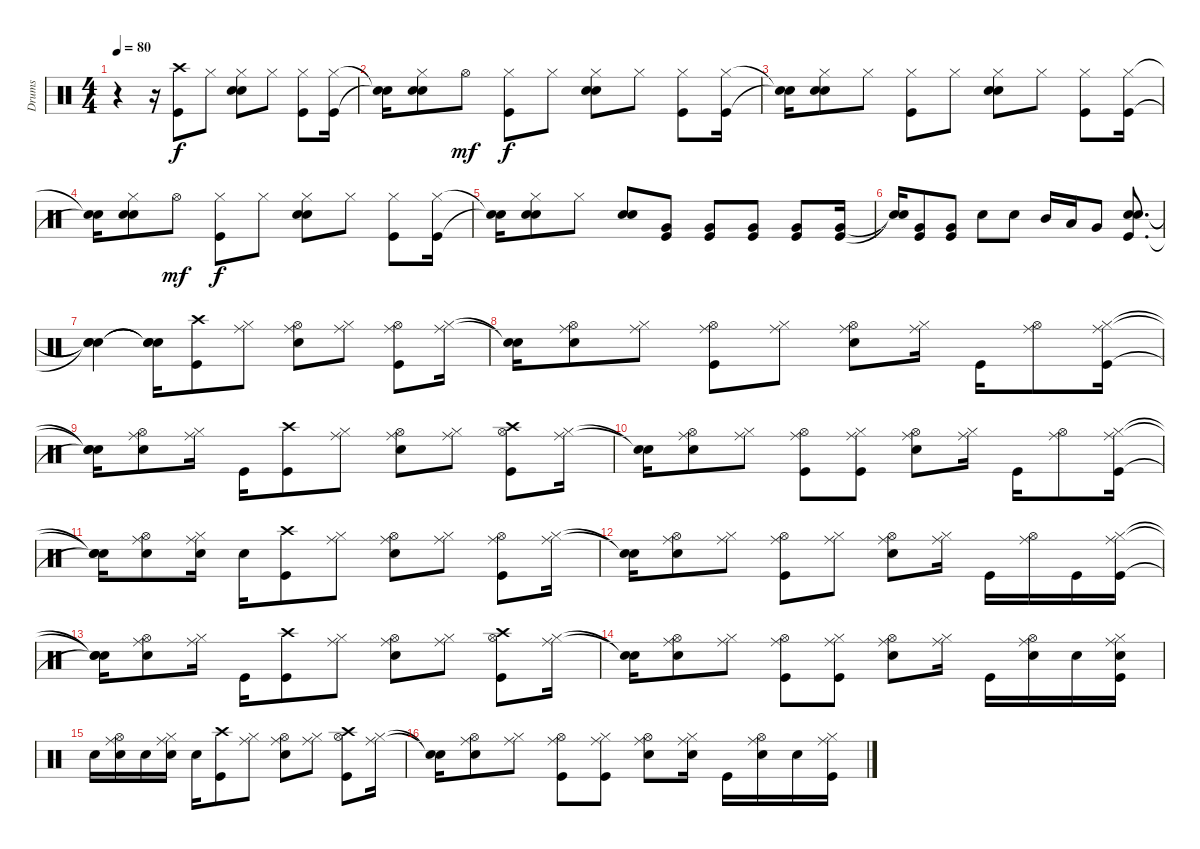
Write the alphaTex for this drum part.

\track ("Drums" "Drums") {instrument percussion}
\staff {score}
\articulation defaults
\ts (4 4)
\tempo 80
\clef neutral
\ks c
r.4{dy f} r.16 ("Kick (hit)" "Crash high (hit)").8 "Hi-Hat (closed)".8 ("Electric Snare (hit)" "Hi-Hat (closed)" "Electric Snare (hit)").8 "Hi-Hat (closed)".8 ("Kick (hit)" "Hi-Hat (closed)").8 ("Kick (hit)" "Hi-Hat (closed)").16 |
("Snare (hit)"{t} "Snare (hit)"{t}).16 ("Electric Snare (hit)" "Hi-Hat (closed)" "Electric Snare (hit)").8 "Hi-Hat (open)".8{dy mf} ("Kick (hit)" "Hi-Hat (closed)").8{dy f} "Hi-Hat (closed)".8 ("Electric Snare (hit)" "Hi-Hat (closed)" "Electric Snare (hit)").8 "Hi-Hat (closed)".8 ("Kick (hit)" "Hi-Hat (closed)").8 ("Kick (hit)" "Hi-Hat (closed)").16 |
("Snare (hit)"{t} "Snare (hit)"{t}).16 ("Electric Snare (hit)" "Hi-Hat (closed)" "Electric Snare (hit)").8 "Hi-Hat (closed)".8 ("Kick (hit)" "Hi-Hat (closed)").8 "Hi-Hat (closed)".8 ("Electric Snare (hit)" "Hi-Hat (closed)" "Electric Snare (hit)").8 "Hi-Hat (closed)".8 ("Kick (hit)" "Hi-Hat (closed)").8 ("Kick (hit)" "Hi-Hat (closed)").16 |
("Snare (hit)"{t} "Snare (hit)"{t}).16 ("Electric Snare (hit)" "Hi-Hat (closed)" "Electric Snare (hit)").8 "Hi-Hat (open)".8{dy mf} ("Kick (hit)" "Hi-Hat (closed)").8{dy f} "Hi-Hat (closed)".8 ("Electric Snare (hit)" "Hi-Hat (closed)" "Electric Snare (hit)").8 "Hi-Hat (closed)".8 ("Kick (hit)" "Hi-Hat (closed)").8 ("Kick (hit)" "Hi-Hat (closed)").16 |
("Snare (hit)"{t} "Snare (hit)"{t}).16 ("Electric Snare (hit)" "Hi-Hat (closed)" "Electric Snare (hit)").8 "Hi-Hat (closed)".8 ("Electric Snare (hit)" "Electric Snare (hit)").8 ("Kick (hit)" "Very Low Tom (hit)").8 ("Kick (hit)" "Very Low Tom (hit)").8 ("Kick (hit)" "Very Low Tom (hit)").8 ("Kick (hit)" "Very Low Tom (hit)").8 ("Kick (hit)" "Very Low Tom (hit)").16 |
("Snare (hit)"{t} "Snare (hit)"{t}).16 ("Kick (hit)" "Very Low Tom (hit)").8 ("Kick (hit)" "Very Low Tom (hit)").8 "Electric Snare (hit)".8 "Electric Snare (hit)".8 "Mid Tom (hit)".16 "Low Tom (hit)".16 "Very Low Tom (hit)".8 ("Kick (hit)" "Electric Snare (hit)" "Electric Snare (hit)").8{d} |
("Snare (hit)"{t} "Snare (hit)"{t} "Snare (hit)"{t}).4 ("Snare (hit)"{t} "Snare (hit)"{t} "Snare (hit)"{t}).16 ("Kick (hit)" "Crash high (hit)").8 ("Hi-Hat (closed)" "Ride (middle)").8 ("Electric Snare (hit)" "Hi-Hat (open)" "Ride (middle)").8 ("Hi-Hat (closed)" "Ride (middle)").8 ("Kick (hit)" "Hi-Hat (open)" "Ride (middle)").8 ("Hi-Hat (closed)" "Ride (middle)").16 |
("Snare (hit)"{t} "Snare (hit)"{t}).16 ("Electric Snare (hit)" "Hi-Hat (open)" "Ride (middle)").8 ("Hi-Hat (closed)" "Ride (middle)").8 ("Kick (hit)" "Hi-Hat (open)" "Ride (middle)").8 ("Hi-Hat (closed)" "Ride (middle)").8 ("Electric Snare (hit)" "Hi-Hat (open)" "Ride (middle)").8 ("Hi-Hat (closed)" "Ride (middle)").16 "Kick (hit)".16 ("Hi-Hat (open)" "Ride (middle)").8 ("Kick (hit)" "Hi-Hat (closed)" "Ride (middle)").16 |
("Snare (hit)"{t} "Snare (hit)"{t} "Snare (hit)"{t}).16 ("Electric Snare (hit)" "Hi-Hat (open)" "Ride (middle)").8 ("Hi-Hat (closed)" "Ride (middle)").16 "Kick (hit)".16 ("Kick (hit)" "Crash high (hit)").8 ("Hi-Hat (closed)" "Ride (middle)").8 ("Electric Snare (hit)" "Hi-Hat (open)" "Ride (middle)").8 ("Hi-Hat (closed)" "Ride (middle)").8 ("Kick (hit)" "Hi-Hat (open)" "Crash high (hit)").8 ("Hi-Hat (closed)" "Ride (middle)").16 |
("Snare (hit)"{t} "Snare (hit)"{t}).16 ("Electric Snare (hit)" "Hi-Hat (open)" "Ride (middle)").8 ("Hi-Hat (closed)" "Ride (middle)").8 ("Kick (hit)" "Hi-Hat (open)" "Ride (middle)").8 ("Kick (hit)" "Hi-Hat (closed)" "Ride (middle)").8 ("Electric Snare (hit)" "Hi-Hat (open)" "Ride (middle)").8 ("Hi-Hat (closed)" "Ride (middle)").16 "Kick (hit)".16 ("Hi-Hat (open)" "Ride (middle)").8 ("Kick (hit)" "Hi-Hat (closed)" "Ride (middle)").16 |
("Snare (hit)"{t} "Snare (hit)"{t} "Snare (hit)"{t}).16 ("Electric Snare (hit)" "Hi-Hat (open)" "Ride (middle)").8 ("Electric Snare (hit)" "Hi-Hat (closed)" "Ride (middle)").16 "Electric Snare (hit)".16 ("Kick (hit)" "Crash high (hit)").8 ("Hi-Hat (closed)" "Ride (middle)").8 ("Electric Snare (hit)" "Hi-Hat (open)" "Ride (middle)").8 ("Hi-Hat (closed)" "Ride (middle)").8 ("Kick (hit)" "Hi-Hat (open)" "Ride (middle)").8 ("Hi-Hat (closed)" "Ride (middle)").16 |
("Snare (hit)"{t} "Snare (hit)"{t}).16 ("Electric Snare (hit)" "Hi-Hat (open)" "Ride (middle)").8 ("Hi-Hat (closed)" "Ride (middle)").8 ("Kick (hit)" "Hi-Hat (open)" "Ride (middle)").8 ("Hi-Hat (closed)" "Ride (middle)").8 ("Electric Snare (hit)" "Hi-Hat (open)" "Ride (middle)").8 ("Hi-Hat (closed)" "Ride (middle)").16 "Kick (hit)".16 ("Hi-Hat (open)" "Ride (middle)").16 "Kick (hit)".16 ("Kick (hit)" "Hi-Hat (closed)" "Ride (middle)").16 |
("Snare (hit)"{t} "Snare (hit)"{t} "Snare (hit)"{t}).16 ("Electric Snare (hit)" "Hi-Hat (open)" "Ride (middle)").8 ("Hi-Hat (closed)" "Ride (middle)").16 "Kick (hit)".16 ("Kick (hit)" "Crash high (hit)").8 ("Hi-Hat (closed)" "Ride (middle)").8 ("Electric Snare (hit)" "Hi-Hat (open)" "Ride (middle)").8 ("Hi-Hat (closed)" "Ride (middle)").8 ("Kick (hit)" "Hi-Hat (open)" "Crash high (hit)").8 ("Hi-Hat (closed)" "Ride (middle)").16 |
("Snare (hit)"{t} "Snare (hit)"{t}).16 ("Electric Snare (hit)" "Hi-Hat (open)" "Ride (middle)").8 ("Hi-Hat (closed)" "Ride (middle)").8 ("Kick (hit)" "Hi-Hat (open)" "Ride (middle)").8 ("Kick (hit)" "Hi-Hat (closed)" "Ride (middle)").8 ("Electric Snare (hit)" "Hi-Hat (open)" "Ride (middle)").8 ("Hi-Hat (closed)" "Ride (middle)").16 "Kick (hit)".16 ("Electric Snare (hit)" "Hi-Hat (open)" "Ride (middle)").16 "Electric Snare (hit)".16 ("Kick (hit)" "Electric Snare (hit)" "Hi-Hat (closed)" "Ride (middle)").16 |
"Electric Snare (hit)".16 ("Electric Snare (hit)" "Hi-Hat (open)" "Ride (middle)").16 "Electric Snare (hit)".16 ("Electric Snare (hit)" "Hi-Hat (closed)" "Ride (middle)").16 "Electric Snare (hit)".16 ("Kick (hit)" "Crash high (hit)").8 ("Hi-Hat (closed)" "Ride (middle)").8 ("Electric Snare (hit)" "Hi-Hat (open)" "Ride (middle)").8 ("Hi-Hat (closed)" "Ride (middle)").8 ("Kick (hit)" "Hi-Hat (open)" "Crash high (hit)").8 ("Hi-Hat (closed)" "Ride (middle)").16 |
("Snare (hit)"{t} "Snare (hit)"{t}).16 ("Electric Snare (hit)" "Hi-Hat (open)" "Ride (middle)").8 ("Hi-Hat (closed)" "Ride (middle)").8 ("Kick (hit)" "Hi-Hat (open)" "Ride (middle)").8 ("Kick (hit)" "Hi-Hat (closed)" "Ride (middle)").8 ("Electric Snare (hit)" "Hi-Hat (open)" "Ride (middle)").8 ("Electric Snare (hit)" "Hi-Hat (closed)" "Ride (middle)").16 "Kick (hit)".16 ("Electric Snare (hit)" "Hi-Hat (open)" "Ride (middle)").16 "Electric Snare (hit)".16 ("Kick (hit)" "Hi-Hat (closed)" "Ride (middle)").16
